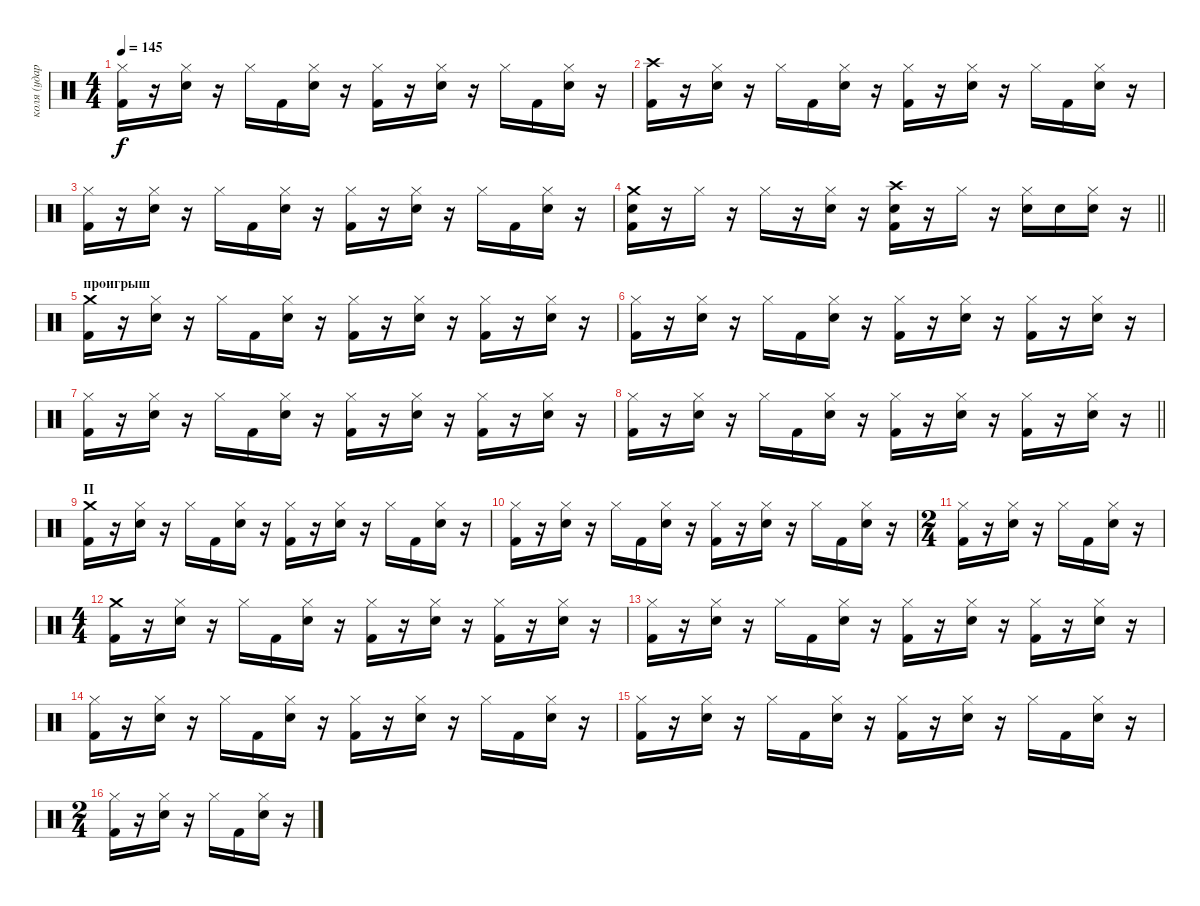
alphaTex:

\track ("коля (ударные)" "коля (удар") {instrument percussion}
\staff {score}
\articulation defaults
\ts (4 4)
\tempo 145
\clef neutral
\ks c
("Kick (hit) 2" "Hi-Hat (closed)").16{dy f} r.16 ("Snare (hit) 2" "Hi-Hat (closed)").16 r.16 "Hi-Hat (closed)".16 "Kick (hit) 2".16 ("Snare (hit) 2" "Hi-Hat (closed)").16 r.16 ("Kick (hit) 2" "Hi-Hat (closed)").16 r.16 ("Snare (hit) 2" "Hi-Hat (closed)").16 r.16 "Hi-Hat (closed)".16 "Kick (hit) 2".16 ("Snare (hit) 2" "Hi-Hat (closed)").16 r.16 |
("Kick (hit) 2" "Crash high (hit)").16 r.16 ("Snare (hit) 2" "Hi-Hat (closed)").16 r.16 "Hi-Hat (closed)".16 "Kick (hit) 2".16 ("Snare (hit) 2" "Hi-Hat (closed)").16 r.16 ("Kick (hit) 2" "Hi-Hat (closed)").16 r.16 ("Snare (hit) 2" "Hi-Hat (closed)").16 r.16 "Hi-Hat (closed)".16 "Kick (hit) 2".16 ("Snare (hit) 2" "Hi-Hat (closed)").16 r.16 |
("Kick (hit) 2" "Hi-Hat (closed)").16 r.16 ("Snare (hit) 2" "Hi-Hat (closed)").16 r.16 "Hi-Hat (closed)".16 "Kick (hit) 2".16 ("Snare (hit) 2" "Hi-Hat (closed)").16 r.16 ("Kick (hit) 2" "Hi-Hat (closed)").16 r.16 ("Snare (hit) 2" "Hi-Hat (closed)").16 r.16 "Hi-Hat (closed)".16 "Kick (hit) 2".16 ("Snare (hit) 2" "Hi-Hat (closed)").16 r.16 |
\barLineRight lightlight
("Kick (hit) 2" "Snare (hit) 2" "Crash medium (hit)").16 r.16 "Hi-Hat (closed)".16 r.16 "Hi-Hat (closed)".16 r.16 ("Snare (hit) 2" "Hi-Hat (closed)").16 r.16 ("Kick (hit) 2" "Snare (hit) 2" "Crash high (hit)").16 r.16 "Hi-Hat (closed)".16 r.16 ("Snare (hit) 2" "Hi-Hat (closed)").16 "Snare (hit) 2".16 ("Snare (hit) 2" "Hi-Hat (closed)").16 r.16 |
\section ("" "проигрыш")
("Kick (hit) 2" "Crash medium (hit)").16 r.16 ("Snare (hit) 2" "Hi-Hat (closed)").16 r.16 "Hi-Hat (closed)".16 "Kick (hit) 2".16 ("Snare (hit) 2" "Hi-Hat (closed)").16 r.16 ("Kick (hit) 2" "Hi-Hat (closed)").16 r.16 ("Snare (hit) 2" "Hi-Hat (closed)").16 r.16 ("Kick (hit) 2" "Hi-Hat (closed)").16 r.16 ("Snare (hit) 2" "Hi-Hat (closed)").16 r.16 |
("Kick (hit) 2" "Hi-Hat (closed)").16 r.16 ("Snare (hit) 2" "Hi-Hat (closed)").16 r.16 "Hi-Hat (closed)".16 "Kick (hit) 2".16 ("Snare (hit) 2" "Hi-Hat (closed)").16 r.16 ("Kick (hit) 2" "Hi-Hat (closed)").16 r.16 ("Snare (hit) 2" "Hi-Hat (closed)").16 r.16 ("Kick (hit) 2" "Hi-Hat (closed)").16 r.16 ("Snare (hit) 2" "Hi-Hat (closed)").16 r.16 |
("Kick (hit) 2" "Hi-Hat (closed)").16 r.16 ("Snare (hit) 2" "Hi-Hat (closed)").16 r.16 "Hi-Hat (closed)".16 "Kick (hit) 2".16 ("Snare (hit) 2" "Hi-Hat (closed)").16 r.16 ("Kick (hit) 2" "Hi-Hat (closed)").16 r.16 ("Snare (hit) 2" "Hi-Hat (closed)").16 r.16 ("Kick (hit) 2" "Hi-Hat (closed)").16 r.16 ("Snare (hit) 2" "Hi-Hat (closed)").16 r.16 |
\barLineRight lightlight
("Kick (hit) 2" "Hi-Hat (closed)").16 r.16 ("Snare (hit) 2" "Hi-Hat (closed)").16 r.16 "Hi-Hat (closed)".16 "Kick (hit) 2".16 ("Snare (hit) 2" "Hi-Hat (closed)").16 r.16 ("Kick (hit) 2" "Hi-Hat (closed)").16 r.16 ("Snare (hit) 2" "Hi-Hat (closed)").16 r.16 ("Kick (hit) 2" "Hi-Hat (closed)").16 r.16 ("Snare (hit) 2" "Hi-Hat (closed)").16 r.16 |
\section ("" "II")
("Kick (hit) 2" "Crash medium (hit)").16 r.16 ("Snare (hit) 2" "Hi-Hat (closed)").16 r.16 "Hi-Hat (closed)".16 "Kick (hit) 2".16 ("Snare (hit) 2" "Hi-Hat (closed)").16 r.16 ("Kick (hit) 2" "Hi-Hat (closed)").16 r.16 ("Snare (hit) 2" "Hi-Hat (closed)").16 r.16 "Hi-Hat (closed)".16 "Kick (hit) 2".16 ("Snare (hit) 2" "Hi-Hat (closed)").16 r.16 |
("Kick (hit) 2" "Hi-Hat (closed)").16 r.16 ("Snare (hit) 2" "Hi-Hat (closed)").16 r.16 "Hi-Hat (closed)".16 "Kick (hit) 2".16 ("Snare (hit) 2" "Hi-Hat (closed)").16 r.16 ("Kick (hit) 2" "Hi-Hat (closed)").16 r.16 ("Snare (hit) 2" "Hi-Hat (closed)").16 r.16 "Hi-Hat (closed)".16 "Kick (hit) 2".16 ("Snare (hit) 2" "Hi-Hat (closed)").16 r.16 |
\ts (2 4)
("Kick (hit) 2" "Hi-Hat (closed)").16 r.16 ("Snare (hit) 2" "Hi-Hat (closed)").16 r.16 "Hi-Hat (closed)".16 "Kick (hit) 2".16 ("Snare (hit) 2" "Hi-Hat (closed)").16 r.16 |
\ts (4 4)
("Kick (hit) 2" "Crash medium (hit)").16 r.16 ("Snare (hit) 2" "Hi-Hat (closed)").16 r.16 "Hi-Hat (closed)".16 "Kick (hit) 2".16 ("Snare (hit) 2" "Hi-Hat (closed)").16 r.16 ("Kick (hit) 2" "Hi-Hat (closed)").16 r.16 ("Snare (hit) 2" "Hi-Hat (closed)").16 r.16 ("Kick (hit) 2" "Hi-Hat (closed)").16 r.16 ("Snare (hit) 2" "Hi-Hat (closed)").16 r.16 |
("Kick (hit) 2" "Hi-Hat (closed)").16 r.16 ("Snare (hit) 2" "Hi-Hat (closed)").16 r.16 "Hi-Hat (closed)".16 "Kick (hit) 2".16 ("Snare (hit) 2" "Hi-Hat (closed)").16 r.16 ("Kick (hit) 2" "Hi-Hat (closed)").16 r.16 ("Snare (hit) 2" "Hi-Hat (closed)").16 r.16 ("Kick (hit) 2" "Hi-Hat (closed)").16 r.16 ("Snare (hit) 2" "Hi-Hat (closed)").16 r.16 |
("Kick (hit) 2" "Hi-Hat (closed)").16 r.16 ("Snare (hit) 2" "Hi-Hat (closed)").16 r.16 "Hi-Hat (closed)".16 "Kick (hit) 2".16 ("Snare (hit) 2" "Hi-Hat (closed)").16 r.16 ("Kick (hit) 2" "Hi-Hat (closed)").16 r.16 ("Snare (hit) 2" "Hi-Hat (closed)").16 r.16 "Hi-Hat (closed)".16 "Kick (hit) 2".16 ("Snare (hit) 2" "Hi-Hat (closed)").16 r.16 |
("Kick (hit) 2" "Hi-Hat (closed)").16 r.16 ("Snare (hit) 2" "Hi-Hat (closed)").16 r.16 "Hi-Hat (closed)".16 "Kick (hit) 2".16 ("Snare (hit) 2" "Hi-Hat (closed)").16 r.16 ("Kick (hit) 2" "Hi-Hat (closed)").16 r.16 ("Snare (hit) 2" "Hi-Hat (closed)").16 r.16 "Hi-Hat (closed)".16 "Kick (hit) 2".16 ("Snare (hit) 2" "Hi-Hat (closed)").16 r.16 |
\ts (2 4)
("Kick (hit) 2" "Hi-Hat (closed)").16 r.16 ("Snare (hit) 2" "Hi-Hat (closed)").16 r.16 "Hi-Hat (closed)".16 "Kick (hit) 2".16 ("Snare (hit) 2" "Hi-Hat (closed)").16 r.16
